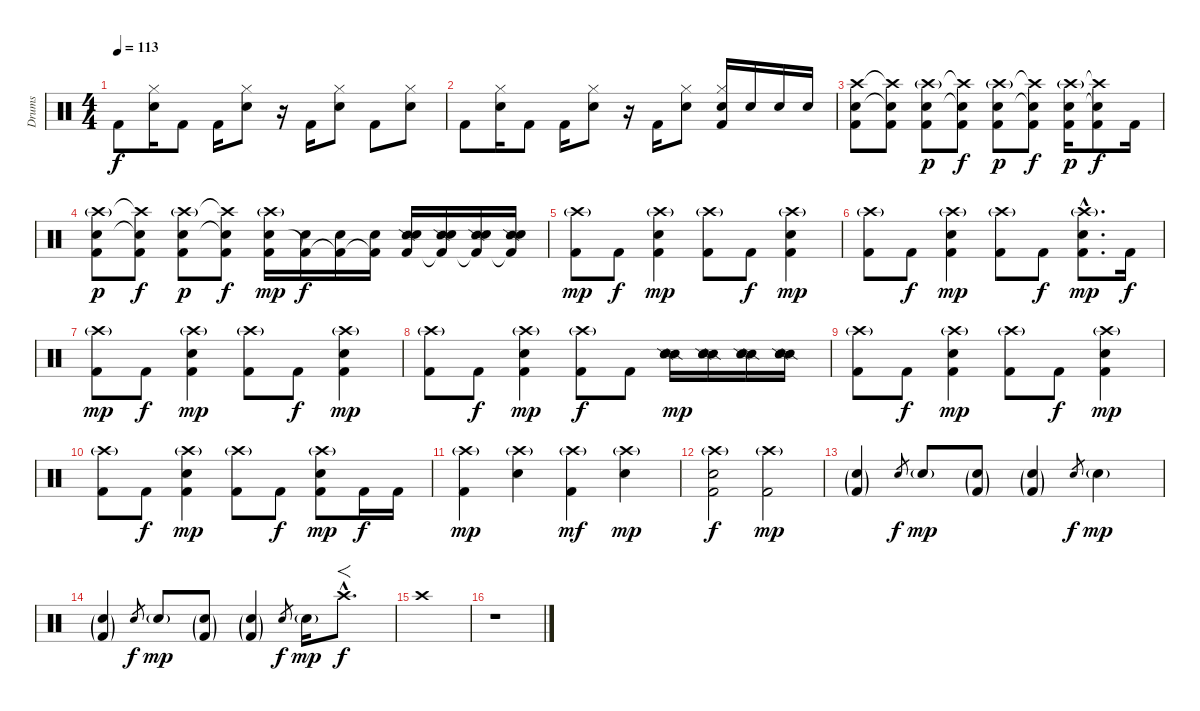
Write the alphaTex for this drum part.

\track ("Drums" "Drums") {instrument percussion}
\staff {score}
\articulation defaults
\ts (4 4)
\tempo 113
\clef neutral
\ks c "Kick (hit) 2".8{dy f}
("Hi-Hat (closed)" "Electric Snare (hit)").16 "Kick (hit) 2".8 "Kick (hit) 2".16 ("Hi-Hat (closed)" "Electric Snare (hit)").8 r.16 "Kick (hit) 2".16 ("Hi-Hat (closed)" "Electric Snare (hit)").8 "Kick (hit) 2".8 ("Hi-Hat (closed)" "Electric Snare (hit)").8 |
"Kick (hit) 2".8 ("Hi-Hat (closed)" "Electric Snare (hit)").16 "Kick (hit) 2".8 "Kick (hit) 2".16 ("Hi-Hat (closed)" "Electric Snare (hit)").8 r.16 "Kick (hit) 2".16 ("Hi-Hat (closed)" "Electric Snare (hit)").8 ("Hi-Hat (closed)" "Electric Snare (hit)" "Kick (hit) 2").16 "Electric Snare (hit)".16 "Electric Snare (hit)".16 "Electric Snare (hit)".16 |
("Crash high (hit)" "Electric Snare (hit)" "Kick (hit) 2").8 ("Crash high (hit)"{t} "Electric Snare (hit)"{t} "Kick (hit) 2").8 ("Crash high (hit)"{g} "Electric Snare (hit)" "Kick (hit) 2").8{dy p} ("Crash high (hit)"{t} "Electric Snare (hit)"{t} "Kick (hit) 2").8{dy f} ("Crash high (hit)"{g} "Electric Snare (hit)" "Kick (hit) 2").8{dy p} ("Crash high (hit)"{t} "Electric Snare (hit)"{t} "Kick (hit) 2").8{dy f} ("Crash high (hit)"{g} "Electric Snare (hit)" "Kick (hit) 2").16{dy p} ("Crash high (hit)"{t} "Electric Snare (hit)"{t} "Kick (hit) 2").8{dy f} "Kick (hit) 2".16 |
("Crash high (hit)"{g} "Electric Snare (hit)" "Kick (hit) 2").8{dy p} ("Crash high (hit)"{t} "Electric Snare (hit)"{t} "Kick (hit) 2").8{dy f} ("Crash high (hit)"{g} "Electric Snare (hit)" "Kick (hit) 2").8{dy p} ("Crash high (hit)"{t} "Electric Snare (hit)"{t} "Kick (hit) 2").8{dy f} ("Crash high (hit)"{g} "Electric Snare (hit)" "Kick (hit) 2").16{dy mp} ("Electric Snare (hit)" "Kick (hit) 2"{t}).16{dy f} ("Electric Snare (hit)" "Kick (hit) 2"{t}).16 ("Electric Snare (hit)" "Kick (hit) 2"{t}).16 ("Snare (side stick) 2" "Electric Snare (hit)" "Kick (hit) 2").16 ("Snare (side stick) 2" "Electric Snare (hit)" "Kick (hit) 2"{t}).16 ("Snare (side stick) 2" "Electric Snare (hit)" "Kick (hit) 2"{t}).16 ("Snare (side stick) 2" "Electric Snare (hit)" "Kick (hit) 2"{t}).16 |
("Crash high (hit)"{g} "Kick (hit) 2").8{dy mp} "Kick (hit) 2".8{dy f} ("Crash high (hit)"{g} "Electric Snare (hit)" "Kick (hit) 2").4{dy mp} ("Crash high (hit)"{g} "Kick (hit) 2").8 "Kick (hit) 2".8{dy f} ("Crash high (hit)"{g} "Electric Snare (hit)" "Kick (hit) 2").4{dy mp} |
("Crash high (hit)"{g} "Kick (hit) 2").8 "Kick (hit) 2".8{dy f} ("Crash high (hit)"{g} "Electric Snare (hit)" "Kick (hit) 2").4{dy mp} ("Crash high (hit)"{g} "Kick (hit) 2").8 "Kick (hit) 2".8{dy f} ("Crash high (hit)"{g hac} "Electric Snare (hit)"{hac} "Kick (hit) 2"{hac}).8{d dy mp} "Kick (hit) 2".16{dy f} |
("Crash high (hit)"{g} "Kick (hit) 2").8{dy mp} "Kick (hit) 2".8{dy f} ("Crash high (hit)"{g} "Electric Snare (hit)" "Kick (hit) 2").4{dy mp} ("Crash high (hit)"{g} "Kick (hit) 2").8 "Kick (hit) 2".8{dy f} ("Crash high (hit)"{g} "Electric Snare (hit)" "Kick (hit) 2").4{dy mp} |
("Crash high (hit)"{g} "Kick (hit) 2").8 "Kick (hit) 2".8{dy f} ("Crash high (hit)"{g} "Electric Snare (hit)" "Kick (hit) 2").4{dy mp} ("Crash high (hit)"{g} "Kick (hit) 2").8{dy f} "Kick (hit) 2".8 ("Snare (side stick) 2" "Snare (side stick) 2" "Electric Snare (hit)").16{dy mp} ("Snare (side stick) 2" "Snare (side stick) 2" "Electric Snare (hit)").16 ("Snare (side stick) 2" "Snare (side stick) 2" "Electric Snare (hit)").16 ("Snare (side stick) 2" "Snare (side stick) 2" "Electric Snare (hit)").16 |
("Crash high (hit)"{g} "Kick (hit) 2").8 "Kick (hit) 2".8{dy f} ("Crash high (hit)"{g} "Electric Snare (hit)" "Kick (hit) 2").4{dy mp} ("Crash high (hit)"{g} "Kick (hit) 2").8 "Kick (hit) 2".8{dy f} ("Crash high (hit)"{g} "Electric Snare (hit)" "Kick (hit) 2").4{dy mp} |
("Crash high (hit)"{g} "Kick (hit) 2").8 "Kick (hit) 2".8{dy f} ("Crash high (hit)"{g} "Electric Snare (hit)" "Kick (hit) 2").4{dy mp} ("Crash high (hit)"{g} "Kick (hit) 2").8 "Kick (hit) 2".8{dy f} ("Crash high (hit)"{g} "Electric Snare (hit)" "Kick (hit) 2").8{dy mp} "Kick (hit) 2".16{dy f} "Kick (hit) 2".16 |
("Crash high (hit)"{g} "Kick (hit) 2").4{dy mp} ("Crash high (hit)"{g} "Snare (hit) 2").4 ("Crash high (hit)"{g} "Kick (hit) 2").4{dy mf} ("Crash high (hit)"{g} "Snare (hit) 2").4{dy mp} |
("Crash high (hit)"{g} "Electric Snare (hit)" "Kick (hit) 2").2{dy f} ("Crash high (hit)"{g} "Kick (hit) 2").2{dy mp} |
("Snare (hit) 2"{g} "Kick (hit) 2"{g}).4 "Electric Snare (hit)".8{gr dy f} "Electric Snare (hit)"{g}.8{dy mp} ("Snare (hit) 2"{g} "Kick (hit) 2"{g}).8 ("Snare (hit) 2"{g} "Kick (hit) 2"{g}).4 "Electric Snare (hit)".8{gr dy f} "Electric Snare (hit)"{g}.4{dy mp} |
("Snare (hit) 2"{g} "Kick (hit) 2"{g}).4 "Electric Snare (hit)".8{gr dy f} "Electric Snare (hit)"{g}.8{dy mp} ("Snare (hit) 2"{g} "Kick (hit) 2"{g}).8 ("Snare (hit) 2"{g} "Kick (hit) 2"{g}).4 "Electric Snare (hit)".8{gr dy f} "Electric Snare (hit)"{g}.16{dy mp} "Crash high (hit)"{hac}.8{f d dy f} |
"Crash high (hit)".1{volume 16} |
r.1
